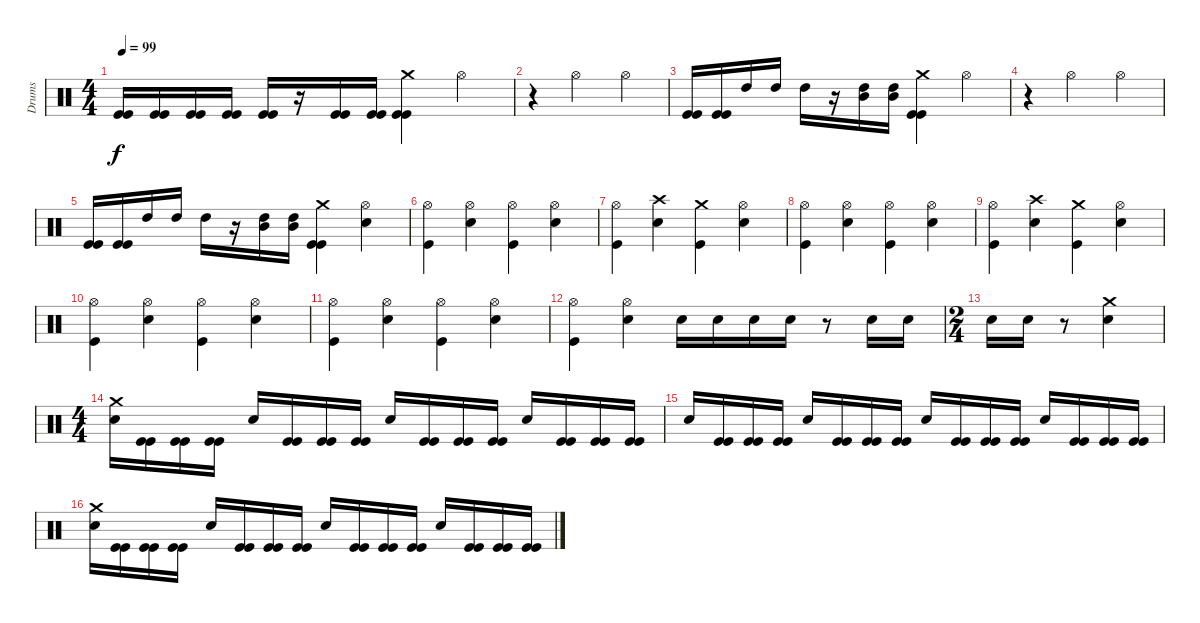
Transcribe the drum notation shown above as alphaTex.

\track ("Drums" "Drums") {instrument percussion}
\staff {score}
\articulation defaults
\ts (4 4)
\tempo 99
\clef neutral
\ks c
("Kick (hit)" "Kick (hit)").16{dy f} ("Kick (hit)" "Kick (hit)").16 ("Kick (hit)" "Kick (hit)").16 ("Kick (hit)" "Kick (hit)").16 ("Kick (hit)" "Kick (hit)").16 r.16 ("Kick (hit)" "Kick (hit)").16 ("Kick (hit)" "Kick (hit)").16 ("Crash medium (hit)" "Kick (hit)" "Kick (hit)").4 "Hi-Hat (open)".4 |
r.4 "Hi-Hat (open)".2 "Hi-Hat (open)".4 |
("Kick (hit)" "Kick (hit)").16 ("Kick (hit)" "Kick (hit)").16 "High Tom (hit)".16 "High Tom (hit)".16 "High Tom (hit)".16 r.16 ("High Tom (hit)" "Mid Tom (hit)").16 ("High Tom (hit)" "Mid Tom (hit)").16 ("Crash medium (hit)" "Kick (hit)" "Kick (hit)").4 "Hi-Hat (open)".4 |
r.4 "Hi-Hat (open)".2 "Hi-Hat (open)".4 |
("Kick (hit)" "Kick (hit)").16 ("Kick (hit)" "Kick (hit)").16 "High Tom (hit)".16 "High Tom (hit)".16 "High Tom (hit)".16 r.16 ("High Tom (hit)" "Mid Tom (hit)").16 ("High Tom (hit)" "Mid Tom (hit)").16 ("Crash medium (hit)" "Kick (hit)" "Kick (hit)").4 ("Hi-Hat (open)" "Snare (hit) 2").4 |
("Hi-Hat (open)" "Kick (hit)").4 ("Hi-Hat (open)" "Snare (hit) 2").4 ("Hi-Hat (open)" "Kick (hit)").4 ("Hi-Hat (open)" "Snare (hit) 2").4 |
("Hi-Hat (open)" "Kick (hit)").4 ("Crash high (hit)" "Snare (hit) 2").4 ("Crash medium (hit)" "Kick (hit)").4 ("Hi-Hat (open)" "Snare (hit) 2").4 |
("Hi-Hat (open)" "Kick (hit)").4 ("Hi-Hat (open)" "Snare (hit) 2").4 ("Hi-Hat (open)" "Kick (hit)").4 ("Hi-Hat (open)" "Snare (hit) 2").4 |
("Hi-Hat (open)" "Kick (hit)").4 ("Crash high (hit)" "Snare (hit) 2").4 ("Crash medium (hit)" "Kick (hit)").4 ("Hi-Hat (open)" "Snare (hit) 2").4 |
("Hi-Hat (open)" "Kick (hit)").4 ("Hi-Hat (open)" "Snare (hit) 2").4 ("Hi-Hat (open)" "Kick (hit)").4 ("Hi-Hat (open)" "Snare (hit) 2").4 |
("Hi-Hat (open)" "Kick (hit)").4 ("Hi-Hat (open)" "Snare (hit) 2").4 ("Hi-Hat (open)" "Kick (hit)").4 ("Hi-Hat (open)" "Snare (hit) 2").4 |
("Hi-Hat (open)" "Kick (hit)").4 ("Hi-Hat (open)" "Snare (hit) 2").4 "Snare (hit) 2".16 "Snare (hit) 2".16 "Snare (hit) 2".16 "Snare (hit) 2".16 r.8 "Snare (hit) 2".16 "Snare (hit) 2".16 |
\ts (2 4)
"Snare (hit) 2".16 "Snare (hit) 2".16 r.8 ("Crash medium (hit)" "Snare (hit) 2").4 |
\ts (4 4)
("Crash medium (hit)" "Snare (hit) 2").16 ("Kick (hit)" "Kick (hit)").16 ("Kick (hit)" "Kick (hit)").16 ("Kick (hit)" "Kick (hit)").16 "Snare (hit) 2".16 ("Kick (hit)" "Kick (hit)").16 ("Kick (hit)" "Kick (hit)").16 ("Kick (hit)" "Kick (hit)").16 "Snare (hit) 2".16 ("Kick (hit)" "Kick (hit)").16 ("Kick (hit)" "Kick (hit)").16 ("Kick (hit)" "Kick (hit)").16 "Snare (hit) 2".16 ("Kick (hit)" "Kick (hit)").16 ("Kick (hit)" "Kick (hit)").16 ("Kick (hit)" "Kick (hit)").16 |
"Snare (hit) 2".16 ("Kick (hit)" "Kick (hit)").16 ("Kick (hit)" "Kick (hit)").16 ("Kick (hit)" "Kick (hit)").16 "Snare (hit) 2".16 ("Kick (hit)" "Kick (hit)").16 ("Kick (hit)" "Kick (hit)").16 ("Kick (hit)" "Kick (hit)").16 "Snare (hit) 2".16 ("Kick (hit)" "Kick (hit)").16 ("Kick (hit)" "Kick (hit)").16 ("Kick (hit)" "Kick (hit)").16 "Snare (hit) 2".16 ("Kick (hit)" "Kick (hit)").16 ("Kick (hit)" "Kick (hit)").16 ("Kick (hit)" "Kick (hit)").16 |
("Crash medium (hit)" "Snare (hit) 2").16 ("Kick (hit)" "Kick (hit)").16 ("Kick (hit)" "Kick (hit)").16 ("Kick (hit)" "Kick (hit)").16 "Snare (hit) 2".16 ("Kick (hit)" "Kick (hit)").16 ("Kick (hit)" "Kick (hit)").16 ("Kick (hit)" "Kick (hit)").16 "Snare (hit) 2".16 ("Kick (hit)" "Kick (hit)").16 ("Kick (hit)" "Kick (hit)").16 ("Kick (hit)" "Kick (hit)").16 "Snare (hit) 2".16 ("Kick (hit)" "Kick (hit)").16 ("Kick (hit)" "Kick (hit)").16 ("Kick (hit)" "Kick (hit)").16
